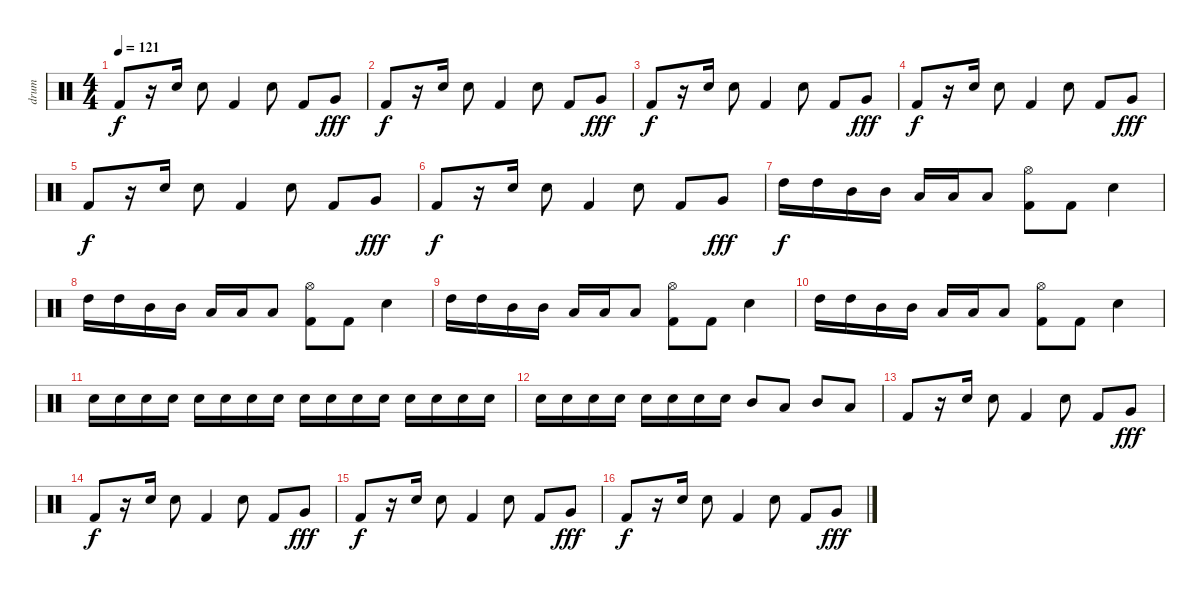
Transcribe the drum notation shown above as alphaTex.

\track ("drum" "drum") {instrument percussion}
\staff {score}
\articulation defaults
\ts (4 4)
\tempo 121
\clef neutral
\ks c "Kick (hit) 2".8{dy f}
r.16 "Electric Snare (hit)".16 "Electric Snare (hit)".8 "Kick (hit) 2".4 "Electric Snare (hit)".8 "Kick (hit) 2".8 "Very Low Tom (hit)".8{dy fff} |
"Kick (hit) 2".8{dy f} r.16 "Electric Snare (hit)".16 "Electric Snare (hit)".8 "Kick (hit) 2".4 "Electric Snare (hit)".8 "Kick (hit) 2".8 "Very Low Tom (hit)".8{dy fff} |
"Kick (hit) 2".8{dy f} r.16 "Electric Snare (hit)".16 "Electric Snare (hit)".8 "Kick (hit) 2".4 "Electric Snare (hit)".8 "Kick (hit) 2".8 "Very Low Tom (hit)".8{dy fff} |
"Kick (hit) 2".8{dy f} r.16 "Electric Snare (hit)".16 "Electric Snare (hit)".8 "Kick (hit) 2".4 "Electric Snare (hit)".8 "Kick (hit) 2".8 "Very Low Tom (hit)".8{dy fff} |
"Kick (hit) 2".8{dy f} r.16 "Electric Snare (hit)".16 "Electric Snare (hit)".8 "Kick (hit) 2".4 "Electric Snare (hit)".8 "Kick (hit) 2".8 "Very Low Tom (hit)".8{dy fff} |
"Kick (hit) 2".8{dy f} r.16 "Electric Snare (hit)".16 "Electric Snare (hit)".8 "Kick (hit) 2".4 "Electric Snare (hit)".8 "Kick (hit) 2".8 "Very Low Tom (hit)".8{dy fff} |
"High Tom (hit)".16{dy f} "High Tom (hit)".16 "Mid Tom (hit)".16 "Mid Tom (hit)".16 "Low Tom (hit)".16 "Low Tom (hit)".16 "Low Tom (hit)".8 ("Hi-Hat (open)" "Kick (hit) 2").8 "Kick (hit) 2".8 "Electric Snare (hit)".4 |
"High Tom (hit)".16 "High Tom (hit)".16 "Mid Tom (hit)".16 "Mid Tom (hit)".16 "Low Tom (hit)".16 "Low Tom (hit)".16 "Low Tom (hit)".8 ("Hi-Hat (open)" "Kick (hit) 2").8 "Kick (hit) 2".8 "Electric Snare (hit)".4 |
"High Tom (hit)".16 "High Tom (hit)".16 "Mid Tom (hit)".16 "Mid Tom (hit)".16 "Low Tom (hit)".16 "Low Tom (hit)".16 "Low Tom (hit)".8 ("Hi-Hat (open)" "Kick (hit) 2").8 "Kick (hit) 2".8 "Electric Snare (hit)".4 |
"High Tom (hit)".16 "High Tom (hit)".16 "Mid Tom (hit)".16 "Mid Tom (hit)".16 "Low Tom (hit)".16 "Low Tom (hit)".16 "Low Tom (hit)".8 ("Hi-Hat (open)" "Kick (hit) 2").8 "Kick (hit) 2".8 "Electric Snare (hit)".4 |
"Electric Snare (hit)".16 "Electric Snare (hit)".16 "Electric Snare (hit)".16 "Electric Snare (hit)".16 "Electric Snare (hit)".16 "Electric Snare (hit)".16 "Electric Snare (hit)".16 "Electric Snare (hit)".16 "Electric Snare (hit)".16 "Electric Snare (hit)".16 "Electric Snare (hit)".16 "Electric Snare (hit)".16 "Electric Snare (hit)".16 "Electric Snare (hit)".16 "Electric Snare (hit)".16 "Electric Snare (hit)".16 |
"Electric Snare (hit)".16 "Electric Snare (hit)".16 "Electric Snare (hit)".16 "Electric Snare (hit)".16 "Electric Snare (hit)".16 "Electric Snare (hit)".16 "Electric Snare (hit)".16 "Electric Snare (hit)".16 "Mid Tom (hit)".8 "Low Tom (hit)".8 "Mid Tom (hit)".8 "Low Floor Tom (hit)".8 |
"Kick (hit) 2".8 r.16 "Electric Snare (hit)".16 "Electric Snare (hit)".8 "Kick (hit) 2".4 "Electric Snare (hit)".8 "Kick (hit) 2".8 "Very Low Tom (hit)".8{dy fff} |
"Kick (hit) 2".8{dy f} r.16 "Electric Snare (hit)".16 "Electric Snare (hit)".8 "Kick (hit) 2".4 "Electric Snare (hit)".8 "Kick (hit) 2".8 "Very Low Tom (hit)".8{dy fff} |
"Kick (hit) 2".8{dy f} r.16 "Electric Snare (hit)".16 "Electric Snare (hit)".8 "Kick (hit) 2".4 "Electric Snare (hit)".8 "Kick (hit) 2".8 "Very Low Tom (hit)".8{dy fff} |
"Kick (hit) 2".8{dy f} r.16 "Electric Snare (hit)".16 "Electric Snare (hit)".8 "Kick (hit) 2".4 "Electric Snare (hit)".8 "Kick (hit) 2".8 "Very Low Tom (hit)".8{dy fff}
